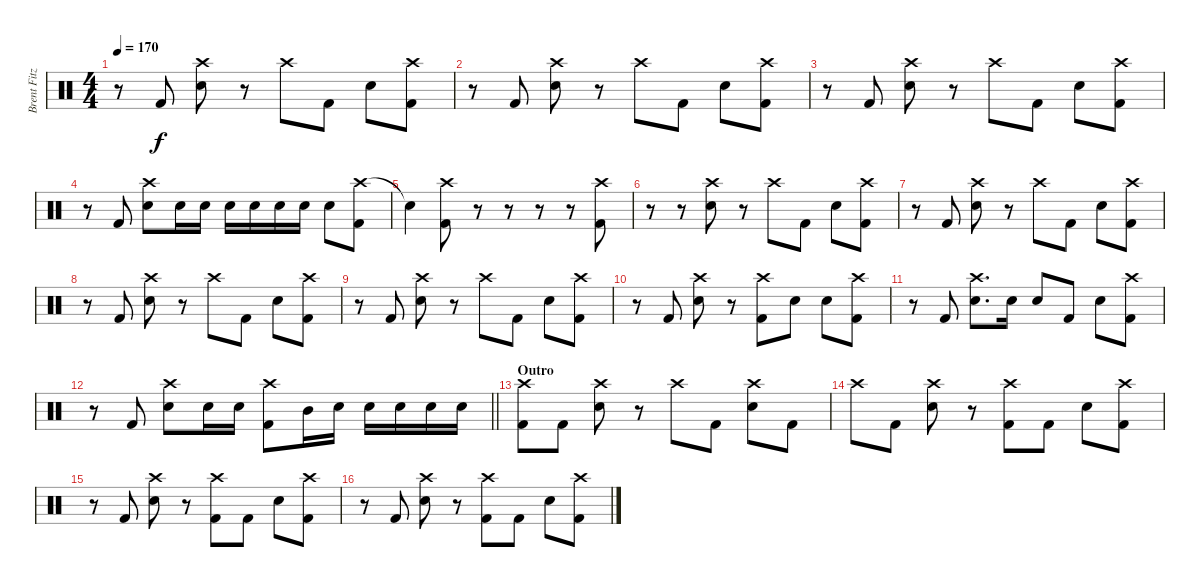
\track ("Brent Fitz" "Brent Fitz") {instrument percussion}
\staff {score}
\articulation defaults
\ts (4 4)
\tempo 170
\clef neutral
\ks c
r.8{dy f} "Kick (hit) 2".8 ("Crash high (hit)" "Electric Snare (hit)").8 r.8 "Crash high (hit)".8 "Kick (hit) 2".8 "Electric Snare (hit)".8 ("Crash high (hit)" "Kick (hit) 2").8 |
r.8 "Kick (hit) 2".8 ("Crash high (hit)" "Electric Snare (hit)").8 r.8 "Crash high (hit)".8 "Kick (hit) 2".8 "Electric Snare (hit)".8 ("Crash high (hit)" "Kick (hit) 2").8 |
r.8 "Kick (hit) 2".8 ("Crash high (hit)" "Electric Snare (hit)").8 r.8 "Crash high (hit)".8 "Kick (hit) 2".8 "Electric Snare (hit)".8 ("Crash high (hit)" "Kick (hit) 2").8 |
r.8 "Kick (hit) 2".8 ("Crash high (hit)" "Electric Snare (hit)").8 "Electric Snare (hit)".16 "Electric Snare (hit)".16 "Electric Snare (hit)".16 "Electric Snare (hit)".16 "Electric Snare (hit)".16 "Electric Snare (hit)".16 "Electric Snare (hit)".8 ("Crash high (hit)" "Kick (hit) 2").8 |
"Snare (hit)"{t}.4 ("Crash high (hit)" "Kick (hit) 2").8 r.8 r.8 r.8 r.8 ("Crash high (hit)" "Kick (hit) 2").8 |
r.8 r.8 ("Crash high (hit)" "Electric Snare (hit)").8 r.8 "Crash high (hit)".8 "Kick (hit) 2".8 "Electric Snare (hit)".8 ("Crash high (hit)" "Kick (hit) 2").8 |
r.8 "Kick (hit) 2".8 ("Crash high (hit)" "Electric Snare (hit)").8 r.8 "Crash high (hit)".8 "Kick (hit) 2".8 "Electric Snare (hit)".8 ("Crash high (hit)" "Kick (hit) 2").8 |
r.8 "Kick (hit) 2".8 ("Crash high (hit)" "Electric Snare (hit)").8 r.8 "Crash high (hit)".8 "Kick (hit) 2".8 "Electric Snare (hit)".8 ("Crash high (hit)" "Kick (hit) 2").8 |
r.8 "Kick (hit) 2".8 ("Crash high (hit)" "Electric Snare (hit)").8 r.8 "Crash high (hit)".8 "Kick (hit) 2".8 "Electric Snare (hit)".8 ("Crash high (hit)" "Kick (hit) 2").8 |
r.8 "Kick (hit) 2".8 ("Crash high (hit)" "Electric Snare (hit)").8 r.8 ("Crash high (hit)" "Kick (hit) 2").8 "Electric Snare (hit)".8 "Electric Snare (hit)".8 ("Crash high (hit)" "Kick (hit) 2").8 |
r.8 "Kick (hit) 2".8 ("Crash high (hit)" "Electric Snare (hit)").8{d} "Electric Snare (hit)".16 "Electric Snare (hit)".8 "Kick (hit) 2".8 "Electric Snare (hit)".8 ("Crash high (hit)" "Kick (hit) 2").8 |
\barLineRight lightlight
r.8 "Kick (hit) 2".8 ("Crash high (hit)" "Electric Snare (hit)").8 "Electric Snare (hit)".16 "Electric Snare (hit)".16 ("Crash high (hit)" "Kick (hit) 2").8 "Mid Tom (hit)".16 "Electric Snare (hit)".16 "Electric Snare (hit)".16 "Electric Snare (hit)".16 "Electric Snare (hit)".16 "Electric Snare (hit)".16 |
\section ("" "Outro")
("Crash high (hit)" "Kick (hit) 2").8 "Kick (hit) 2".8 ("Crash high (hit)" "Electric Snare (hit)").8 r.8 "Crash high (hit)".8 "Kick (hit) 2".8 ("Crash high (hit)" "Electric Snare (hit)").8 "Kick (hit) 2".8 |
"Crash high (hit)".8 "Kick (hit) 2".8 ("Crash high (hit)" "Electric Snare (hit)").8 r.8 ("Crash high (hit)" "Kick (hit) 2").8 "Kick (hit) 2".8 "Electric Snare (hit)".8 ("Crash high (hit)" "Kick (hit) 2").8 |
r.8 "Kick (hit) 2".8 ("Crash high (hit)" "Electric Snare (hit)").8 r.8 ("Crash high (hit)" "Kick (hit) 2").8 "Kick (hit) 2".8 "Electric Snare (hit)".8 ("Crash high (hit)" "Kick (hit) 2").8 |
r.8 "Kick (hit) 2".8 ("Crash high (hit)" "Electric Snare (hit)").8 r.8 ("Crash high (hit)" "Kick (hit) 2").8 "Kick (hit) 2".8 "Electric Snare (hit)".8 ("Crash high (hit)" "Kick (hit) 2").8
